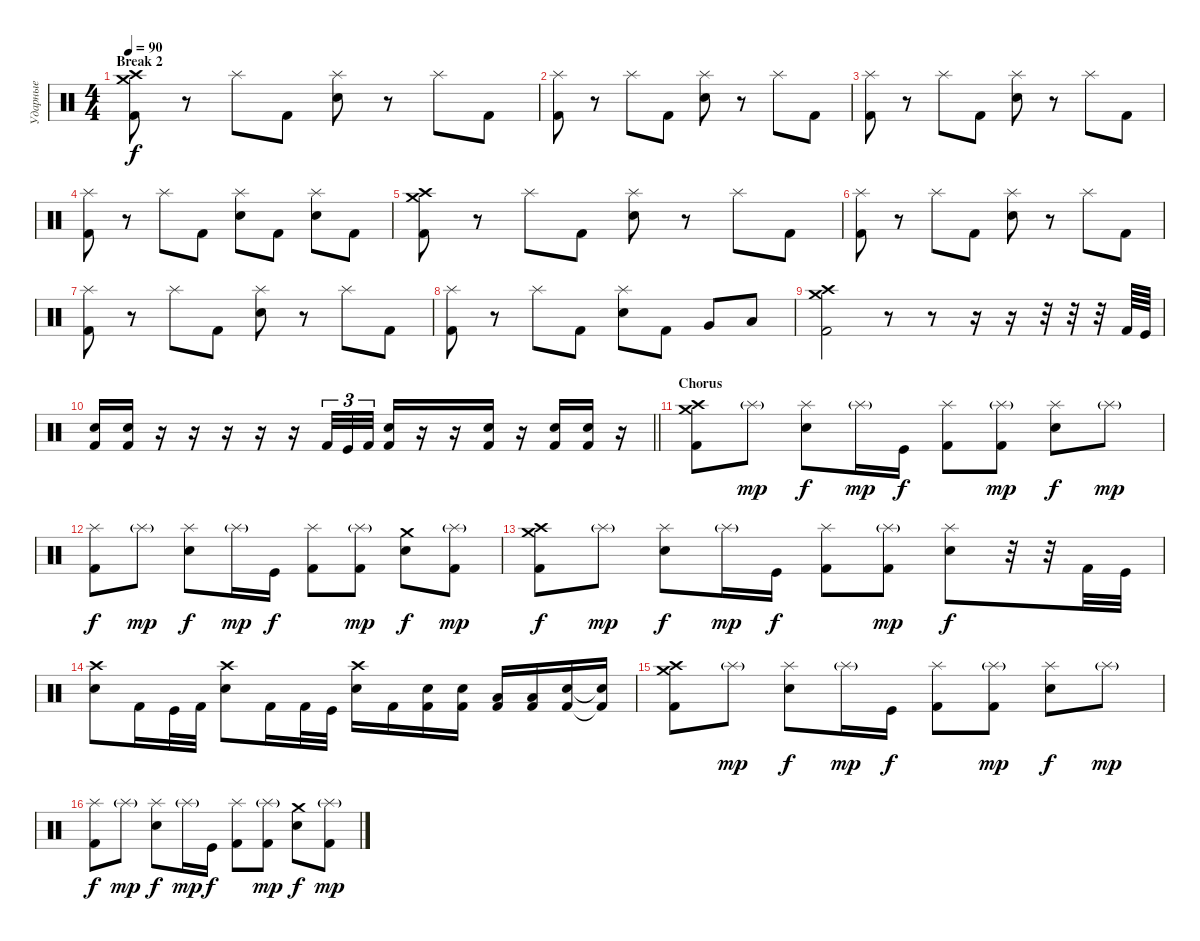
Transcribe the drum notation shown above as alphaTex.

\track ("Ударные" "Ударные") {instrument percussion}
\staff {score}
\articulation defaults
\ts (4 4)
\section ("" "Break 2")
\tempo 90
\clef neutral
\ks c
("Crash high (hit)" "Crash medium (hit)" "Kick (hit) 2").8{dy f} r.8 "Splash (hit)".8 "Kick (hit) 2".8 ("Splash (hit)" "Electric Snare (hit)").8 r.8 "Splash (hit)".8 "Kick (hit) 2".8 |
("Splash (hit)" "Kick (hit) 2").8 r.8 "Splash (hit)".8 "Kick (hit) 2".8 ("Splash (hit)" "Electric Snare (hit)").8 r.8 "Splash (hit)".8 "Kick (hit) 2".8 |
("Splash (hit)" "Kick (hit) 2").8 r.8 "Splash (hit)".8 "Kick (hit) 2".8 ("Splash (hit)" "Electric Snare (hit)").8 r.8 "Splash (hit)".8 "Kick (hit) 2".8 |
("Splash (hit)" "Kick (hit) 2").8 r.8 "Splash (hit)".8 "Kick (hit) 2".8 ("Splash (hit)" "Electric Snare (hit)").8 "Kick (hit) 2".8 ("Splash (hit)" "Electric Snare (hit)").8 "Kick (hit) 2".8 |
("Crash high (hit)" "Crash medium (hit)" "Kick (hit) 2").8 r.8 "Splash (hit)".8 "Kick (hit) 2".8 ("Splash (hit)" "Electric Snare (hit)").8 r.8 "Splash (hit)".8 "Kick (hit) 2".8 |
("Splash (hit)" "Kick (hit) 2").8 r.8 "Splash (hit)".8 "Kick (hit) 2".8 ("Splash (hit)" "Electric Snare (hit)").8 r.8 "Splash (hit)".8 "Kick (hit) 2".8 |
("Splash (hit)" "Kick (hit) 2").8 r.8 "Splash (hit)".8 "Kick (hit) 2".8 ("Splash (hit)" "Electric Snare (hit)").8 r.8 "Splash (hit)".8 "Kick (hit) 2".8 |
("Splash (hit)" "Kick (hit) 2").8 r.8 "Splash (hit)".8 "Kick (hit) 2".8 ("Splash (hit)" "Electric Snare (hit)").8 "Kick (hit) 2".8 "Very Low Tom (hit)".8 "Low Floor Tom (hit)".8 |
("Crash medium (hit)" "Crash high (hit)" "Kick (hit) 2").2 r.8 r.8 r.16 r.16 r.32 r.32 r.32 "Kick (hit) 2".64 "Kick (hit)".64 |
\barLineRight lightlight
("Electric Snare (hit)" "Kick (hit) 2").16 ("Electric Snare (hit)" "Kick (hit) 2").16 r.16 r.16 r.16 r.16 r.16 "Kick (hit) 2".32{tu (3 2)} "Kick (hit)".32{tu (3 2)} "Kick (hit) 2".32{tu (3 2)} ("Electric Snare (hit)" "Kick (hit) 2").16 r.16 r.16 ("Electric Snare (hit)" "Kick (hit) 2").16 r.16 ("Electric Snare (hit)" "Kick (hit) 2").16 ("Electric Snare (hit)" "Kick (hit) 2").16 r.16 |
\section ("" "Chorus")
("Crash medium (hit)" "Crash high (hit)" "Kick (hit) 2").8 "Splash (hit)"{g}.8{dy mp} ("Splash (hit)" "Electric Snare (hit)").8{dy f} "Splash (hit)"{g}.16{dy mp} "Kick (hit)".16{dy f} ("Splash (hit)" "Kick (hit) 2").8 ("Splash (hit)"{g} "Kick (hit) 2").8{dy mp} ("Splash (hit)" "Electric Snare (hit)").8{dy f} "Splash (hit)"{g}.8{dy mp} |
("Splash (hit)" "Kick (hit) 2").8{dy f} "Splash (hit)"{g}.8{dy mp} ("Splash (hit)" "Electric Snare (hit)").8{dy f} "Splash (hit)"{g}.16{dy mp} "Kick (hit)".16{dy f} ("Splash (hit)" "Kick (hit) 2").8 ("Splash (hit)"{g} "Kick (hit) 2").8{dy mp} ("Crash medium (hit)" "Electric Snare (hit)").8{dy f} ("Splash (hit)"{g} "Kick (hit) 2").8{dy mp} |
("Crash medium (hit)" "Crash high (hit)" "Kick (hit) 2").8{dy f} "Splash (hit)"{g}.8{dy mp} ("Splash (hit)" "Electric Snare (hit)").8{dy f} "Splash (hit)"{g}.16{dy mp} "Kick (hit)".16{dy f} ("Splash (hit)" "Kick (hit) 2").8 ("Splash (hit)"{g} "Kick (hit) 2").8{dy mp} ("Splash (hit)" "Electric Snare (hit)").8{dy f} r.32 r.32 "Kick (hit) 2".32 "Kick (hit)".32 |
("Crash high (hit)" "Electric Snare (hit)").8 "Kick (hit) 2".16 "Kick (hit)".32 "Kick (hit) 2".32 ("Crash high (hit)" "Electric Snare (hit)").8 "Kick (hit) 2".16 "Kick (hit) 2".32 "Kick (hit)".32 ("Crash high (hit)" "Electric Snare (hit)").16 "Kick (hit) 2".16 ("Electric Snare (hit)" "Kick (hit) 2").16 ("Electric Snare (hit)" "Kick (hit) 2").16 ("Low Tom (hit)" "Kick (hit) 2").16 ("Low Tom (hit)" "Kick (hit) 2").16 ("Electric Snare (hit)" "Kick (hit) 2").16 ("Electric Snare (hit)"{t} "Kick (hit) 2"{t}).16 |
("Crash medium (hit)" "Crash high (hit)" "Kick (hit) 2").8 "Splash (hit)"{g}.8{dy mp} ("Splash (hit)" "Electric Snare (hit)").8{dy f} "Splash (hit)"{g}.16{dy mp} "Kick (hit)".16{dy f} ("Splash (hit)" "Kick (hit) 2").8 ("Splash (hit)"{g} "Kick (hit) 2").8{dy mp} ("Splash (hit)" "Electric Snare (hit)").8{dy f} "Splash (hit)"{g}.8{dy mp} |
("Splash (hit)" "Kick (hit) 2").8{dy f} "Splash (hit)"{g}.8{dy mp} ("Splash (hit)" "Electric Snare (hit)").8{dy f} "Splash (hit)"{g}.16{dy mp} "Kick (hit)".16{dy f} ("Splash (hit)" "Kick (hit) 2").8 ("Splash (hit)"{g} "Kick (hit) 2").8{dy mp} ("Crash medium (hit)" "Electric Snare (hit)").8{dy f} ("Splash (hit)"{g} "Kick (hit) 2").8{dy mp}
